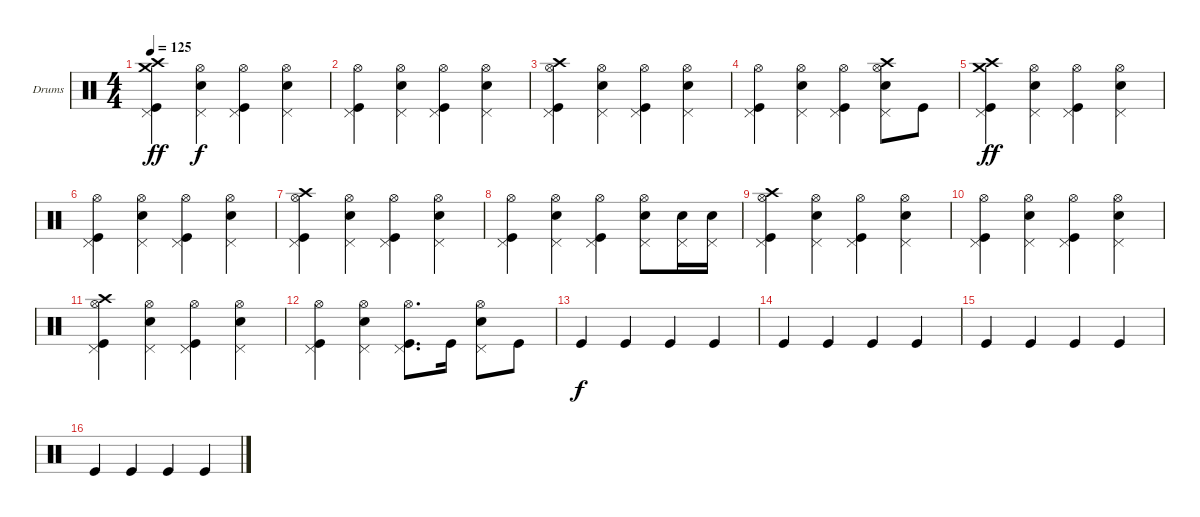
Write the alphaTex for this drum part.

\defaultSystemsLayout 4
\bracketExtendMode groupsimilarinstruments
\firstSystemTrackNameOrientation horizontal
\otherSystemsTrackNameOrientation horizontal
\track ("Drums" "Drums") {instrument percussion}
\staff {score}
\articulation defaults
\ts (4 4)
\tempo 125
\clef neutral
\ks c
("Kick (hit)" "Pedal Hi-Hat (hit)" "Crash medium (hit)" "Crash high (hit)").4{dy ff} ("Snare (hit) 2" "Pedal Hi-Hat (hit)" "Hi-Hat (open)").4{dy f} ("Kick (hit)" "Pedal Hi-Hat (hit)" "Hi-Hat (open)").4 ("Snare (hit) 2" "Pedal Hi-Hat (hit)" "Hi-Hat (open)").4 |
("Kick (hit)" "Pedal Hi-Hat (hit)" "Hi-Hat (open)").4 ("Snare (hit) 2" "Pedal Hi-Hat (hit)" "Hi-Hat (open)").4 ("Kick (hit)" "Pedal Hi-Hat (hit)" "Hi-Hat (open)").4 ("Snare (hit) 2" "Pedal Hi-Hat (hit)" "Hi-Hat (open)").4 |
("Kick (hit)" "Pedal Hi-Hat (hit)" "Hi-Hat (open)" "Crash high (hit)").4 ("Snare (hit) 2" "Pedal Hi-Hat (hit)" "Hi-Hat (open)").4 ("Kick (hit)" "Pedal Hi-Hat (hit)" "Hi-Hat (open)").4 ("Snare (hit) 2" "Pedal Hi-Hat (hit)" "Hi-Hat (open)").4 |
("Kick (hit)" "Pedal Hi-Hat (hit)" "Hi-Hat (open)").4 ("Snare (hit) 2" "Pedal Hi-Hat (hit)" "Hi-Hat (open)").4 ("Kick (hit)" "Pedal Hi-Hat (hit)" "Hi-Hat (open)").4 ("Snare (hit) 2" "Pedal Hi-Hat (hit)" "Hi-Hat (open)" "Crash high (hit)").8 "Kick (hit)".8 |
("Kick (hit)" "Pedal Hi-Hat (hit)" "Crash medium (hit)" "Crash high (hit)").4{dy ff} ("Snare (hit) 2" "Pedal Hi-Hat (hit)" "Hi-Hat (open)").4 ("Kick (hit)" "Pedal Hi-Hat (hit)" "Hi-Hat (open)").4 ("Snare (hit) 2" "Pedal Hi-Hat (hit)" "Hi-Hat (open)").4 |
("Kick (hit)" "Pedal Hi-Hat (hit)" "Hi-Hat (open)").4 ("Snare (hit) 2" "Pedal Hi-Hat (hit)" "Hi-Hat (open)").4 ("Kick (hit)" "Pedal Hi-Hat (hit)" "Hi-Hat (open)").4 ("Snare (hit) 2" "Pedal Hi-Hat (hit)" "Hi-Hat (open)").4 |
("Kick (hit)" "Pedal Hi-Hat (hit)" "Hi-Hat (open)" "Crash high (hit)").4 ("Snare (hit) 2" "Pedal Hi-Hat (hit)" "Hi-Hat (open)").4 ("Kick (hit)" "Pedal Hi-Hat (hit)" "Hi-Hat (open)").4 ("Snare (hit) 2" "Pedal Hi-Hat (hit)" "Hi-Hat (open)").4 |
("Kick (hit)" "Pedal Hi-Hat (hit)" "Hi-Hat (open)").4 ("Snare (hit) 2" "Pedal Hi-Hat (hit)" "Hi-Hat (open)").4 ("Kick (hit)" "Pedal Hi-Hat (hit)" "Hi-Hat (open)").4 ("Snare (hit) 2" "Pedal Hi-Hat (hit)" "Hi-Hat (open)").8 ("Snare (hit) 2" "Pedal Hi-Hat (hit)").16 ("Snare (hit) 2" "Pedal Hi-Hat (hit)").16 |
("Kick (hit)" "Pedal Hi-Hat (hit)" "Hi-Hat (open)" "Crash high (hit)").4 ("Snare (hit) 2" "Pedal Hi-Hat (hit)" "Hi-Hat (open)").4 ("Kick (hit)" "Pedal Hi-Hat (hit)" "Hi-Hat (open)").4 ("Snare (hit) 2" "Pedal Hi-Hat (hit)" "Hi-Hat (open)").4 |
("Kick (hit)" "Pedal Hi-Hat (hit)" "Hi-Hat (open)").4 ("Snare (hit) 2" "Pedal Hi-Hat (hit)" "Hi-Hat (open)").4 ("Kick (hit)" "Pedal Hi-Hat (hit)" "Hi-Hat (open)").4 ("Snare (hit) 2" "Pedal Hi-Hat (hit)" "Hi-Hat (open)").4 |
("Kick (hit)" "Pedal Hi-Hat (hit)" "Hi-Hat (open)" "Crash high (hit)").4 ("Snare (hit) 2" "Pedal Hi-Hat (hit)" "Hi-Hat (open)").4 ("Kick (hit)" "Pedal Hi-Hat (hit)" "Hi-Hat (open)").4 ("Snare (hit) 2" "Pedal Hi-Hat (hit)" "Hi-Hat (open)").4 |
("Kick (hit)" "Pedal Hi-Hat (hit)" "Hi-Hat (open)").4 ("Snare (hit) 2" "Pedal Hi-Hat (hit)" "Hi-Hat (open)").4 ("Kick (hit)" "Pedal Hi-Hat (hit)" "Hi-Hat (open)").8{d} "Kick (hit)".16 ("Snare (hit) 2" "Pedal Hi-Hat (hit)" "Hi-Hat (open)").8 "Kick (hit)".8 |
"Kick (hit)".4{dy f} "Kick (hit)".4 "Kick (hit)".4 "Kick (hit)".4 |
"Kick (hit)".4 "Kick (hit)".4 "Kick (hit)".4 "Kick (hit)".4 |
"Kick (hit)".4 "Kick (hit)".4 "Kick (hit)".4 "Kick (hit)".4 |
"Kick (hit)".4 "Kick (hit)".4 "Kick (hit)".4 "Kick (hit)".4
